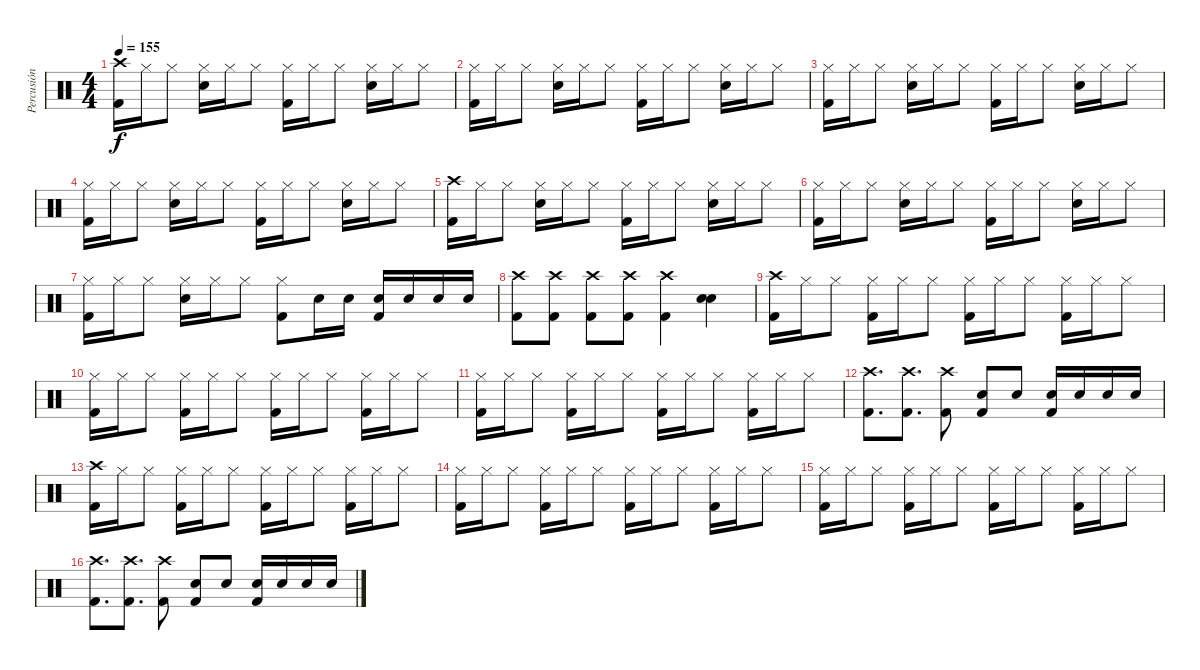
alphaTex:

\track ("Percusión" "Percusión") {instrument percussion}
\staff {score}
\articulation defaults
\ts (4 4)
\tempo 155
\clef neutral
\ks c
("Crash high (hit)" "Kick (hit) 2").16{dy f} "Hi-Hat (closed)".16 "Hi-Hat (closed)".8 ("Hi-Hat (closed)" "Electric Snare (hit)").16 "Hi-Hat (closed)".16 "Hi-Hat (closed)".8 ("Hi-Hat (closed)" "Kick (hit) 2").16 "Hi-Hat (closed)".16 "Hi-Hat (closed)".8 ("Hi-Hat (closed)" "Electric Snare (hit)").16 "Hi-Hat (closed)".16 "Hi-Hat (closed)".8 |
("Hi-Hat (closed)" "Kick (hit) 2").16 "Hi-Hat (closed)".16 "Hi-Hat (closed)".8 ("Hi-Hat (closed)" "Electric Snare (hit)").16 "Hi-Hat (closed)".16 "Hi-Hat (closed)".8 ("Hi-Hat (closed)" "Kick (hit) 2").16 "Hi-Hat (closed)".16 "Hi-Hat (closed)".8 ("Hi-Hat (closed)" "Electric Snare (hit)").16 "Hi-Hat (closed)".16 "Hi-Hat (closed)".8 |
("Hi-Hat (closed)" "Kick (hit) 2").16 "Hi-Hat (closed)".16 "Hi-Hat (closed)".8 ("Hi-Hat (closed)" "Electric Snare (hit)").16 "Hi-Hat (closed)".16 "Hi-Hat (closed)".8 ("Hi-Hat (closed)" "Kick (hit) 2").16 "Hi-Hat (closed)".16 "Hi-Hat (closed)".8 ("Hi-Hat (closed)" "Electric Snare (hit)").16 "Hi-Hat (closed)".16 "Hi-Hat (closed)".8 |
("Hi-Hat (closed)" "Kick (hit) 2").16 "Hi-Hat (closed)".16 "Hi-Hat (closed)".8 ("Hi-Hat (closed)" "Electric Snare (hit)").16 "Hi-Hat (closed)".16 "Hi-Hat (closed)".8 ("Hi-Hat (closed)" "Kick (hit) 2").16 "Hi-Hat (closed)".16 "Hi-Hat (closed)".8 ("Hi-Hat (closed)" "Electric Snare (hit)").16 "Hi-Hat (closed)".16 "Hi-Hat (closed)".8 |
("Crash high (hit)" "Kick (hit) 2").16 "Hi-Hat (closed)".16 "Hi-Hat (closed)".8 ("Hi-Hat (closed)" "Electric Snare (hit)").16 "Hi-Hat (closed)".16 "Hi-Hat (closed)".8 ("Hi-Hat (closed)" "Kick (hit) 2").16 "Hi-Hat (closed)".16 "Hi-Hat (closed)".8 ("Hi-Hat (closed)" "Electric Snare (hit)").16 "Hi-Hat (closed)".16 "Hi-Hat (closed)".8 |
("Hi-Hat (closed)" "Kick (hit) 2").16 "Hi-Hat (closed)".16 "Hi-Hat (closed)".8 ("Hi-Hat (closed)" "Electric Snare (hit)").16 "Hi-Hat (closed)".16 "Hi-Hat (closed)".8 ("Hi-Hat (closed)" "Kick (hit) 2").16 "Hi-Hat (closed)".16 "Hi-Hat (closed)".8 ("Hi-Hat (closed)" "Electric Snare (hit)").16 "Hi-Hat (closed)".16 "Hi-Hat (closed)".8 |
("Hi-Hat (closed)" "Kick (hit) 2").16 "Hi-Hat (closed)".16 "Hi-Hat (closed)".8 ("Hi-Hat (closed)" "Electric Snare (hit)").16 "Hi-Hat (closed)".16 "Hi-Hat (closed)".8 ("Hi-Hat (closed)" "Kick (hit) 2").8 "Electric Snare (hit)".16 "Electric Snare (hit)".16 ("Electric Snare (hit)" "Kick (hit) 2").16 "Electric Snare (hit)".16 "Electric Snare (hit)".16 "Electric Snare (hit)".16 |
("Crash high (hit)" "Kick (hit) 2").8 ("Crash high (hit)" "Kick (hit) 2").8 ("Crash high (hit)" "Kick (hit) 2").8 ("Crash high (hit)" "Kick (hit) 2").8 ("Crash high (hit)" "Kick (hit) 2").4 ("Electric Snare (hit)" "Electric Snare (hit)").4 |
("Crash high (hit)" "Kick (hit) 2").16 "Hi-Hat (closed)".16 "Hi-Hat (closed)".8 ("Hi-Hat (closed)" "Kick (hit) 2").16 "Hi-Hat (closed)".16 "Hi-Hat (closed)".8 ("Hi-Hat (closed)" "Kick (hit) 2").16 "Hi-Hat (closed)".16 "Hi-Hat (closed)".8 ("Hi-Hat (closed)" "Kick (hit) 2").16 "Hi-Hat (closed)".16 "Hi-Hat (closed)".8 |
("Hi-Hat (closed)" "Kick (hit) 2").16 "Hi-Hat (closed)".16 "Hi-Hat (closed)".8 ("Hi-Hat (closed)" "Kick (hit) 2").16 "Hi-Hat (closed)".16 "Hi-Hat (closed)".8 ("Hi-Hat (closed)" "Kick (hit) 2").16 "Hi-Hat (closed)".16 "Hi-Hat (closed)".8 ("Hi-Hat (closed)" "Kick (hit) 2").16 "Hi-Hat (closed)".16 "Hi-Hat (closed)".8 |
("Hi-Hat (closed)" "Kick (hit) 2").16 "Hi-Hat (closed)".16 "Hi-Hat (closed)".8 ("Hi-Hat (closed)" "Kick (hit) 2").16 "Hi-Hat (closed)".16 "Hi-Hat (closed)".8 ("Hi-Hat (closed)" "Kick (hit) 2").16 "Hi-Hat (closed)".16 "Hi-Hat (closed)".8 ("Hi-Hat (closed)" "Kick (hit) 2").16 "Hi-Hat (closed)".16 "Hi-Hat (closed)".8 |
("Crash high (hit)" "Kick (hit) 2").8{d} ("Crash high (hit)" "Kick (hit) 2").8{d} ("Crash high (hit)" "Kick (hit) 2").8 ("Electric Snare (hit)" "Kick (hit) 2").8 "Electric Snare (hit)".8 ("Electric Snare (hit)" "Kick (hit) 2").16 "Electric Snare (hit)".16 "Electric Snare (hit)".16 "Electric Snare (hit)".16 |
("Crash high (hit)" "Kick (hit) 2").16 "Hi-Hat (closed)".16 "Hi-Hat (closed)".8 ("Hi-Hat (closed)" "Kick (hit) 2").16 "Hi-Hat (closed)".16 "Hi-Hat (closed)".8 ("Hi-Hat (closed)" "Kick (hit) 2").16 "Hi-Hat (closed)".16 "Hi-Hat (closed)".8 ("Hi-Hat (closed)" "Kick (hit) 2").16 "Hi-Hat (closed)".16 "Hi-Hat (closed)".8 |
("Hi-Hat (closed)" "Kick (hit) 2").16 "Hi-Hat (closed)".16 "Hi-Hat (closed)".8 ("Hi-Hat (closed)" "Kick (hit) 2").16 "Hi-Hat (closed)".16 "Hi-Hat (closed)".8 ("Hi-Hat (closed)" "Kick (hit) 2").16 "Hi-Hat (closed)".16 "Hi-Hat (closed)".8 ("Hi-Hat (closed)" "Kick (hit) 2").16 "Hi-Hat (closed)".16 "Hi-Hat (closed)".8 |
("Hi-Hat (closed)" "Kick (hit) 2").16 "Hi-Hat (closed)".16 "Hi-Hat (closed)".8 ("Hi-Hat (closed)" "Kick (hit) 2").16 "Hi-Hat (closed)".16 "Hi-Hat (closed)".8 ("Hi-Hat (closed)" "Kick (hit) 2").16 "Hi-Hat (closed)".16 "Hi-Hat (closed)".8 ("Hi-Hat (closed)" "Kick (hit) 2").16 "Hi-Hat (closed)".16 "Hi-Hat (closed)".8 |
("Crash high (hit)" "Kick (hit) 2").8{d} ("Crash high (hit)" "Kick (hit) 2").8{d} ("Crash high (hit)" "Kick (hit) 2").8 ("Electric Snare (hit)" "Kick (hit) 2").8 "Electric Snare (hit)".8 ("Electric Snare (hit)" "Kick (hit) 2").16 "Electric Snare (hit)".16 "Electric Snare (hit)".16 "Electric Snare (hit)".16
